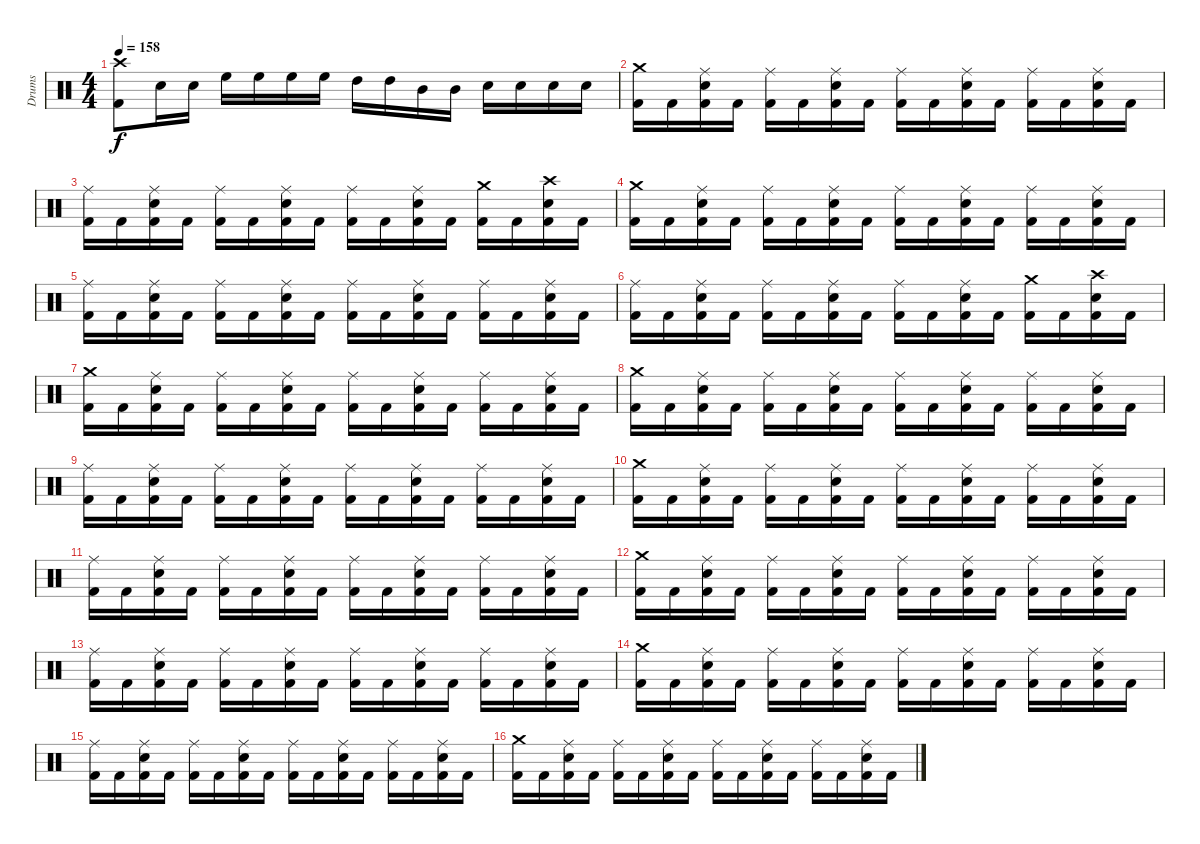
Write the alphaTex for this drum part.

\track ("Drums" "Drums") {instrument percussion}
\staff {score}
\articulation defaults
\ts (4 4)
\tempo 158
\clef neutral
\ks c
("Crash high (hit)" "Kick (hit) 2").8{dy f} "Electric Snare (hit)".16 "Electric Snare (hit)".16 "High Floor Tom (hit)".16 "High Floor Tom (hit)".16 "High Floor Tom (hit)".16 "High Floor Tom (hit)".16 "High Tom (hit)".16 "High Tom (hit)".16 "Mid Tom (hit)".16 "Mid Tom (hit)".16 "Electric Snare (hit)".16 "Electric Snare (hit)".16 "Electric Snare (hit)".16 "Electric Snare (hit)".16 |
("Crash medium (hit)" "Kick (hit) 2").16 "Kick (hit) 2".16 ("Ride (middle)" "Electric Snare (hit)" "Kick (hit) 2").16 "Kick (hit) 2".16 ("Ride (middle)" "Kick (hit) 2").16 "Kick (hit) 2".16 ("Ride (middle)" "Electric Snare (hit)" "Kick (hit) 2").16 "Kick (hit) 2".16 ("Ride (middle)" "Kick (hit) 2").16 "Kick (hit) 2".16 ("Ride (middle)" "Electric Snare (hit)" "Kick (hit) 2").16 "Kick (hit) 2".16 ("Ride (middle)" "Kick (hit) 2").16 "Kick (hit) 2".16 ("Ride (middle)" "Electric Snare (hit)" "Kick (hit) 2").16 "Kick (hit) 2".16 |
("Ride (middle)" "Kick (hit) 2").16 "Kick (hit) 2".16 ("Ride (middle)" "Electric Snare (hit)" "Kick (hit) 2").16 "Kick (hit) 2".16 ("Ride (middle)" "Kick (hit) 2").16 "Kick (hit) 2".16 ("Ride (middle)" "Electric Snare (hit)" "Kick (hit) 2").16 "Kick (hit) 2".16 ("Ride (middle)" "Kick (hit) 2").16 "Kick (hit) 2".16 ("Ride (middle)" "Electric Snare (hit)" "Kick (hit) 2").16 "Kick (hit) 2".16 ("Crash medium (hit)" "Kick (hit) 2").16 "Kick (hit) 2".16 ("Crash high (hit)" "Electric Snare (hit)" "Kick (hit) 2").16 "Kick (hit) 2".16 |
("Crash medium (hit)" "Kick (hit) 2").16 "Kick (hit) 2".16 ("Ride (middle)" "Electric Snare (hit)" "Kick (hit) 2").16 "Kick (hit) 2".16 ("Ride (middle)" "Kick (hit) 2").16 "Kick (hit) 2".16 ("Ride (middle)" "Electric Snare (hit)" "Kick (hit) 2").16 "Kick (hit) 2".16 ("Ride (middle)" "Kick (hit) 2").16 "Kick (hit) 2".16 ("Ride (middle)" "Electric Snare (hit)" "Kick (hit) 2").16 "Kick (hit) 2".16 ("Ride (middle)" "Kick (hit) 2").16 "Kick (hit) 2".16 ("Ride (middle)" "Electric Snare (hit)" "Kick (hit) 2").16 "Kick (hit) 2".16 |
("Ride (middle)" "Kick (hit) 2").16 "Kick (hit) 2".16 ("Ride (middle)" "Electric Snare (hit)" "Kick (hit) 2").16 "Kick (hit) 2".16 ("Ride (middle)" "Kick (hit) 2").16 "Kick (hit) 2".16 ("Ride (middle)" "Electric Snare (hit)" "Kick (hit) 2").16 "Kick (hit) 2".16 ("Ride (middle)" "Kick (hit) 2").16 "Kick (hit) 2".16 ("Ride (middle)" "Electric Snare (hit)" "Kick (hit) 2").16 "Kick (hit) 2".16 ("Ride (middle)" "Kick (hit) 2").16 "Kick (hit) 2".16 ("Ride (middle)" "Electric Snare (hit)" "Kick (hit) 2").16 "Kick (hit) 2".16 |
("Ride (middle)" "Kick (hit) 2").16 "Kick (hit) 2".16 ("Ride (middle)" "Electric Snare (hit)" "Kick (hit) 2").16 "Kick (hit) 2".16 ("Ride (middle)" "Kick (hit) 2").16 "Kick (hit) 2".16 ("Ride (middle)" "Electric Snare (hit)" "Kick (hit) 2").16 "Kick (hit) 2".16 ("Ride (middle)" "Kick (hit) 2").16 "Kick (hit) 2".16 ("Ride (middle)" "Electric Snare (hit)" "Kick (hit) 2").16 "Kick (hit) 2".16 ("Crash medium (hit)" "Kick (hit) 2").16 "Kick (hit) 2".16 ("Crash high (hit)" "Electric Snare (hit)" "Kick (hit) 2").16 "Kick (hit) 2".16 |
("Crash medium (hit)" "Kick (hit) 2").16 "Kick (hit) 2".16 ("Ride (middle)" "Electric Snare (hit)" "Kick (hit) 2").16 "Kick (hit) 2".16 ("Ride (middle)" "Kick (hit) 2").16 "Kick (hit) 2".16 ("Ride (middle)" "Electric Snare (hit)" "Kick (hit) 2").16 "Kick (hit) 2".16 ("Ride (middle)" "Kick (hit) 2").16 "Kick (hit) 2".16 ("Ride (middle)" "Electric Snare (hit)" "Kick (hit) 2").16 "Kick (hit) 2".16 ("Ride (middle)" "Kick (hit) 2").16 "Kick (hit) 2".16 ("Ride (middle)" "Electric Snare (hit)" "Kick (hit) 2").16 "Kick (hit) 2".16 |
("Crash medium (hit)" "Kick (hit) 2").16 "Kick (hit) 2".16 ("Ride (middle)" "Electric Snare (hit)" "Kick (hit) 2").16 "Kick (hit) 2".16 ("Ride (middle)" "Kick (hit) 2").16 "Kick (hit) 2".16 ("Ride (middle)" "Electric Snare (hit)" "Kick (hit) 2").16 "Kick (hit) 2".16 ("Ride (middle)" "Kick (hit) 2").16 "Kick (hit) 2".16 ("Ride (middle)" "Electric Snare (hit)" "Kick (hit) 2").16 "Kick (hit) 2".16 ("Ride (middle)" "Kick (hit) 2").16 "Kick (hit) 2".16 ("Ride (middle)" "Electric Snare (hit)" "Kick (hit) 2").16 "Kick (hit) 2".16 |
("Ride (middle)" "Kick (hit) 2").16 "Kick (hit) 2".16 ("Ride (middle)" "Electric Snare (hit)" "Kick (hit) 2").16 "Kick (hit) 2".16 ("Ride (middle)" "Kick (hit) 2").16 "Kick (hit) 2".16 ("Ride (middle)" "Electric Snare (hit)" "Kick (hit) 2").16 "Kick (hit) 2".16 ("Ride (middle)" "Kick (hit) 2").16 "Kick (hit) 2".16 ("Ride (middle)" "Electric Snare (hit)" "Kick (hit) 2").16 "Kick (hit) 2".16 ("Ride (middle)" "Kick (hit) 2").16 "Kick (hit) 2".16 ("Ride (middle)" "Electric Snare (hit)" "Kick (hit) 2").16 "Kick (hit) 2".16 |
("Crash medium (hit)" "Kick (hit) 2").16 "Kick (hit) 2".16 ("Ride (middle)" "Electric Snare (hit)" "Kick (hit) 2").16 "Kick (hit) 2".16 ("Ride (middle)" "Kick (hit) 2").16 "Kick (hit) 2".16 ("Ride (middle)" "Electric Snare (hit)" "Kick (hit) 2").16 "Kick (hit) 2".16 ("Ride (middle)" "Kick (hit) 2").16 "Kick (hit) 2".16 ("Ride (middle)" "Electric Snare (hit)" "Kick (hit) 2").16 "Kick (hit) 2".16 ("Ride (middle)" "Kick (hit) 2").16 "Kick (hit) 2".16 ("Ride (middle)" "Electric Snare (hit)" "Kick (hit) 2").16 "Kick (hit) 2".16 |
("Ride (middle)" "Kick (hit) 2").16 "Kick (hit) 2".16 ("Ride (middle)" "Electric Snare (hit)" "Kick (hit) 2").16 "Kick (hit) 2".16 ("Ride (middle)" "Kick (hit) 2").16 "Kick (hit) 2".16 ("Ride (middle)" "Electric Snare (hit)" "Kick (hit) 2").16 "Kick (hit) 2".16 ("Ride (middle)" "Kick (hit) 2").16 "Kick (hit) 2".16 ("Ride (middle)" "Electric Snare (hit)" "Kick (hit) 2").16 "Kick (hit) 2".16 ("Ride (middle)" "Kick (hit) 2").16 "Kick (hit) 2".16 ("Ride (middle)" "Electric Snare (hit)" "Kick (hit) 2").16 "Kick (hit) 2".16 |
("Crash medium (hit)" "Kick (hit) 2").16 "Kick (hit) 2".16 ("Ride (middle)" "Electric Snare (hit)" "Kick (hit) 2").16 "Kick (hit) 2".16 ("Ride (middle)" "Kick (hit) 2").16 "Kick (hit) 2".16 ("Ride (middle)" "Electric Snare (hit)" "Kick (hit) 2").16 "Kick (hit) 2".16 ("Ride (middle)" "Kick (hit) 2").16 "Kick (hit) 2".16 ("Ride (middle)" "Electric Snare (hit)" "Kick (hit) 2").16 "Kick (hit) 2".16 ("Ride (middle)" "Kick (hit) 2").16 "Kick (hit) 2".16 ("Ride (middle)" "Electric Snare (hit)" "Kick (hit) 2").16 "Kick (hit) 2".16 |
("Ride (middle)" "Kick (hit) 2").16 "Kick (hit) 2".16 ("Ride (middle)" "Electric Snare (hit)" "Kick (hit) 2").16 "Kick (hit) 2".16 ("Ride (middle)" "Kick (hit) 2").16 "Kick (hit) 2".16 ("Ride (middle)" "Electric Snare (hit)" "Kick (hit) 2").16 "Kick (hit) 2".16 ("Ride (middle)" "Kick (hit) 2").16 "Kick (hit) 2".16 ("Ride (middle)" "Electric Snare (hit)" "Kick (hit) 2").16 "Kick (hit) 2".16 ("Ride (middle)" "Kick (hit) 2").16 "Kick (hit) 2".16 ("Ride (middle)" "Electric Snare (hit)" "Kick (hit) 2").16 "Kick (hit) 2".16 |
("Crash medium (hit)" "Kick (hit) 2").16 "Kick (hit) 2".16 ("Ride (middle)" "Electric Snare (hit)" "Kick (hit) 2").16 "Kick (hit) 2".16 ("Ride (middle)" "Kick (hit) 2").16 "Kick (hit) 2".16 ("Ride (middle)" "Electric Snare (hit)" "Kick (hit) 2").16 "Kick (hit) 2".16 ("Ride (middle)" "Kick (hit) 2").16 "Kick (hit) 2".16 ("Ride (middle)" "Electric Snare (hit)" "Kick (hit) 2").16 "Kick (hit) 2".16 ("Ride (middle)" "Kick (hit) 2").16 "Kick (hit) 2".16 ("Ride (middle)" "Electric Snare (hit)" "Kick (hit) 2").16 "Kick (hit) 2".16 |
("Ride (middle)" "Kick (hit) 2").16 "Kick (hit) 2".16 ("Ride (middle)" "Electric Snare (hit)" "Kick (hit) 2").16 "Kick (hit) 2".16 ("Ride (middle)" "Kick (hit) 2").16 "Kick (hit) 2".16 ("Ride (middle)" "Electric Snare (hit)" "Kick (hit) 2").16 "Kick (hit) 2".16 ("Ride (middle)" "Kick (hit) 2").16 "Kick (hit) 2".16 ("Ride (middle)" "Electric Snare (hit)" "Kick (hit) 2").16 "Kick (hit) 2".16 ("Ride (middle)" "Kick (hit) 2").16 "Kick (hit) 2".16 ("Ride (middle)" "Electric Snare (hit)" "Kick (hit) 2").16 "Kick (hit) 2".16 |
("Crash medium (hit)" "Kick (hit) 2").16 "Kick (hit) 2".16 ("Ride (middle)" "Electric Snare (hit)" "Kick (hit) 2").16 "Kick (hit) 2".16 ("Ride (middle)" "Kick (hit) 2").16 "Kick (hit) 2".16 ("Ride (middle)" "Electric Snare (hit)" "Kick (hit) 2").16 "Kick (hit) 2".16 ("Ride (middle)" "Kick (hit) 2").16 "Kick (hit) 2".16 ("Ride (middle)" "Electric Snare (hit)" "Kick (hit) 2").16 "Kick (hit) 2".16 ("Ride (middle)" "Kick (hit) 2").16 "Kick (hit) 2".16 ("Ride (middle)" "Electric Snare (hit)" "Kick (hit) 2").16 "Kick (hit) 2".16
